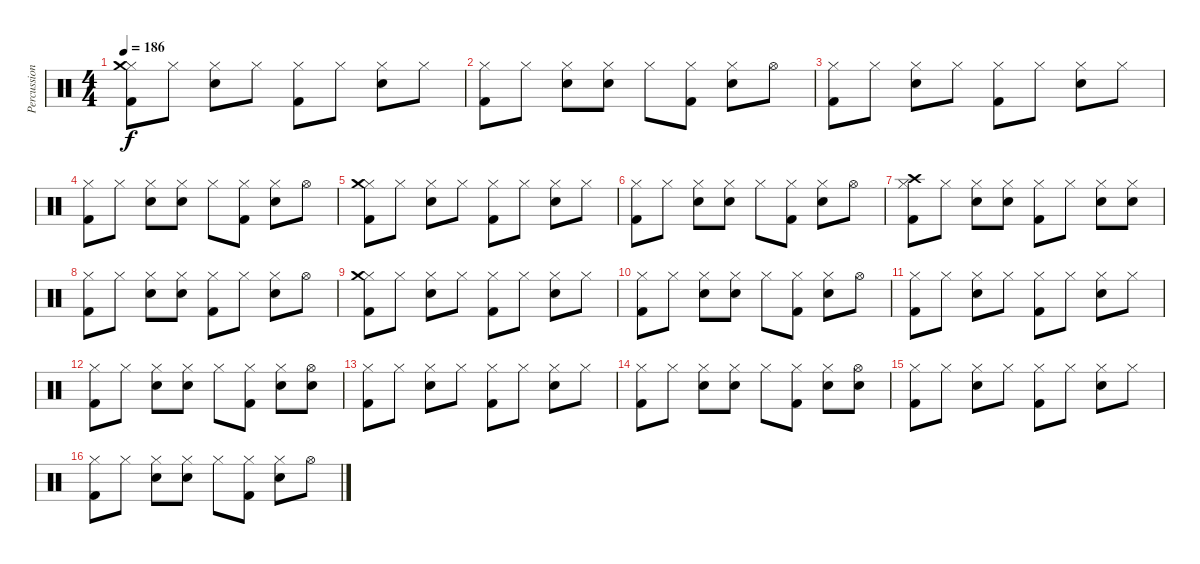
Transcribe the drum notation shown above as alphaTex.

\track ("Percussions" "Percussion") {instrument percussion}
\staff {score}
\articulation defaults
\ts (4 4)
\tempo 186
\clef neutral
\ks c
("Hi-Hat (closed)" "Crash medium (hit)" "Kick (hit) 2").8{dy f} "Hi-Hat (closed)".8 ("Hi-Hat (closed)" "Electric Snare (hit)").8 "Hi-Hat (closed)".8 ("Hi-Hat (closed)" "Kick (hit) 2").8 "Hi-Hat (closed)".8 ("Hi-Hat (closed)" "Electric Snare (hit)").8 "Hi-Hat (closed)".8 |
("Hi-Hat (closed)" "Kick (hit) 2").8 "Hi-Hat (closed)".8 ("Hi-Hat (closed)" "Electric Snare (hit)").8 ("Hi-Hat (closed)" "Electric Snare (hit)").8 "Hi-Hat (closed)".8 ("Hi-Hat (closed)" "Kick (hit) 2").8 ("Hi-Hat (closed)" "Electric Snare (hit)").8 "Hi-Hat (open)".8 |
("Hi-Hat (closed)" "Kick (hit) 2").8 "Hi-Hat (closed)".8 ("Hi-Hat (closed)" "Electric Snare (hit)").8 "Hi-Hat (closed)".8 ("Hi-Hat (closed)" "Kick (hit) 2").8 "Hi-Hat (closed)".8 ("Hi-Hat (closed)" "Electric Snare (hit)").8 "Hi-Hat (closed)".8 |
("Hi-Hat (closed)" "Kick (hit) 2").8 "Hi-Hat (closed)".8 ("Hi-Hat (closed)" "Electric Snare (hit)").8 ("Hi-Hat (closed)" "Electric Snare (hit)").8 "Hi-Hat (closed)".8 ("Hi-Hat (closed)" "Kick (hit) 2").8 ("Hi-Hat (closed)" "Electric Snare (hit)").8 "Hi-Hat (open)".8 |
("Hi-Hat (closed)" "Crash medium (hit)" "Kick (hit) 2").8 "Hi-Hat (closed)".8 ("Hi-Hat (closed)" "Electric Snare (hit)").8 "Hi-Hat (closed)".8 ("Hi-Hat (closed)" "Kick (hit) 2").8 "Hi-Hat (closed)".8 ("Hi-Hat (closed)" "Electric Snare (hit)").8 "Hi-Hat (closed)".8 |
("Hi-Hat (closed)" "Kick (hit) 2").8 "Hi-Hat (closed)".8 ("Hi-Hat (closed)" "Electric Snare (hit)").8 ("Hi-Hat (closed)" "Electric Snare (hit)").8 "Hi-Hat (closed)".8 ("Hi-Hat (closed)" "Kick (hit) 2").8 ("Hi-Hat (closed)" "Electric Snare (hit)").8 "Hi-Hat (open)".8 |
("Hi-Hat (closed)" "Crash high (hit)" "Kick (hit) 2").8 "Hi-Hat (closed)".8 ("Hi-Hat (closed)" "Electric Snare (hit)").8 ("Hi-Hat (closed)" "Electric Snare (hit)").8 ("Hi-Hat (closed)" "Kick (hit) 2").8 "Hi-Hat (closed)".8 ("Hi-Hat (closed)" "Electric Snare (hit)").8 ("Hi-Hat (closed)" "Electric Snare (hit)").8 |
("Hi-Hat (closed)" "Kick (hit) 2").8 "Hi-Hat (closed)".8 ("Hi-Hat (closed)" "Electric Snare (hit)").8 ("Hi-Hat (closed)" "Electric Snare (hit)").8 ("Hi-Hat (closed)" "Kick (hit) 2").8 "Hi-Hat (closed)".8 ("Hi-Hat (closed)" "Electric Snare (hit)").8 "Hi-Hat (open)".8 |
("Hi-Hat (closed)" "Crash medium (hit)" "Kick (hit) 2").8 "Hi-Hat (closed)".8 ("Hi-Hat (closed)" "Electric Snare (hit)").8 "Hi-Hat (closed)".8 ("Hi-Hat (closed)" "Kick (hit) 2").8 "Hi-Hat (closed)".8 ("Hi-Hat (closed)" "Electric Snare (hit)").8 "Hi-Hat (closed)".8 |
("Hi-Hat (closed)" "Kick (hit) 2").8 "Hi-Hat (closed)".8 ("Hi-Hat (closed)" "Electric Snare (hit)").8 ("Hi-Hat (closed)" "Electric Snare (hit)").8 "Hi-Hat (closed)".8 ("Hi-Hat (closed)" "Kick (hit) 2").8 ("Hi-Hat (closed)" "Electric Snare (hit)").8 "Hi-Hat (open)".8 |
("Hi-Hat (closed)" "Kick (hit) 2").8 "Hi-Hat (closed)".8 ("Hi-Hat (closed)" "Electric Snare (hit)").8 "Hi-Hat (closed)".8 ("Hi-Hat (closed)" "Kick (hit) 2").8 "Hi-Hat (closed)".8 ("Hi-Hat (closed)" "Electric Snare (hit)").8 "Hi-Hat (closed)".8 |
("Hi-Hat (closed)" "Kick (hit) 2").8 "Hi-Hat (closed)".8 ("Hi-Hat (closed)" "Electric Snare (hit)").8 ("Hi-Hat (closed)" "Electric Snare (hit)").8 "Hi-Hat (closed)".8 ("Hi-Hat (closed)" "Kick (hit) 2").8 ("Hi-Hat (closed)" "Electric Snare (hit)").8 ("Hi-Hat (open)" "Electric Snare (hit)").8 |
("Hi-Hat (closed)" "Kick (hit) 2").8 "Hi-Hat (closed)".8 ("Hi-Hat (closed)" "Electric Snare (hit)").8 "Hi-Hat (closed)".8 ("Hi-Hat (closed)" "Kick (hit) 2").8 "Hi-Hat (closed)".8 ("Hi-Hat (closed)" "Electric Snare (hit)").8 "Hi-Hat (closed)".8 |
("Hi-Hat (closed)" "Kick (hit) 2").8 "Hi-Hat (closed)".8 ("Hi-Hat (closed)" "Electric Snare (hit)").8 ("Hi-Hat (closed)" "Electric Snare (hit)").8 "Hi-Hat (closed)".8 ("Hi-Hat (closed)" "Kick (hit) 2").8 ("Hi-Hat (closed)" "Electric Snare (hit)").8 ("Hi-Hat (open)" "Electric Snare (hit)").8 |
("Hi-Hat (closed)" "Kick (hit) 2").8 "Hi-Hat (closed)".8 ("Hi-Hat (closed)" "Electric Snare (hit)").8 "Hi-Hat (closed)".8 ("Hi-Hat (closed)" "Kick (hit) 2").8 "Hi-Hat (closed)".8 ("Hi-Hat (closed)" "Electric Snare (hit)").8 "Hi-Hat (closed)".8 |
("Hi-Hat (closed)" "Kick (hit) 2").8 "Hi-Hat (closed)".8 ("Hi-Hat (closed)" "Electric Snare (hit)").8 ("Hi-Hat (closed)" "Electric Snare (hit)").8 "Hi-Hat (closed)".8 ("Hi-Hat (closed)" "Kick (hit) 2").8 ("Hi-Hat (closed)" "Electric Snare (hit)").8 "Hi-Hat (open)".8
